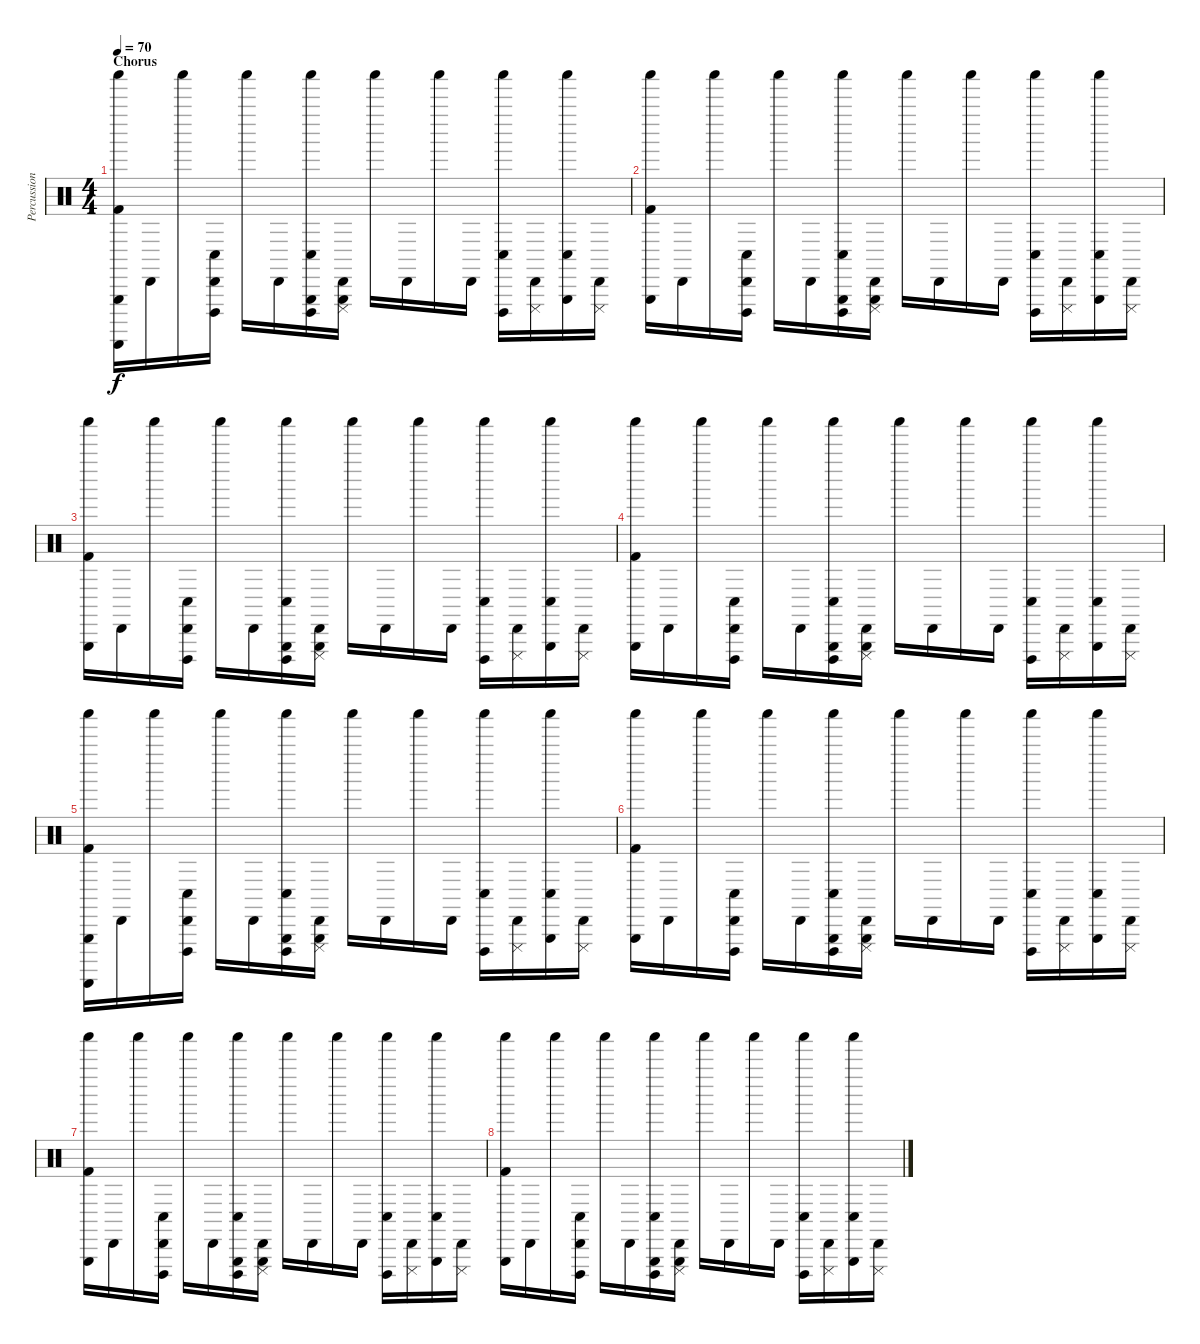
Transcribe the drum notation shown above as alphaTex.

\track ("Percussion" "Percussion") {instrument percussion}
\staff {score}
\articulation defaults
\ts (4 4)
\section ("" "Chorus")
\tempo 70
\clef neutral
\ks c
("Triangle (hit)" "Guiro (scrap-return)" "Shaker (hit)" "Kick (hit) 2").16{dy f} "Cabasa (hit)".16 "Shaker (hit)".16 ("Cabasa (hit)" "Cuica (open)" "Conga low (hit)").16 "Shaker (hit)".16 "Cabasa (hit)".16 ("Triangle (hit)" "Shaker (hit)" "Cuica (open)" "Conga low (hit)").16 ("Triangle (hit)" "Cabasa (hit)" "Cuica (mute)").16 "Shaker (hit)".16 "Cabasa (hit)".16 "Shaker (hit)".16 "Cabasa (hit)".16 ("Shaker (hit)" "Cuica (open)" "Conga low (hit)").16 ("Cabasa (hit)" "Cuica (mute)").16 ("Triangle (hit)" "Shaker (hit)" "Conga low (hit)").16 ("Cabasa (hit)" "Cuica (mute)").16 |
("Triangle (hit)" "Shaker (hit)" "Kick (hit) 2").16 "Cabasa (hit)".16 "Shaker (hit)".16 ("Cabasa (hit)" "Cuica (open)" "Conga low (hit)").16 "Shaker (hit)".16 "Cabasa (hit)".16 ("Triangle (hit)" "Shaker (hit)" "Cuica (open)" "Conga low (hit)").16 ("Triangle (hit)" "Cabasa (hit)" "Cuica (mute)").16 "Shaker (hit)".16 "Cabasa (hit)".16 "Shaker (hit)".16 "Cabasa (hit)".16 ("Shaker (hit)" "Cuica (open)" "Conga low (hit)").16 ("Cabasa (hit)" "Cuica (mute)").16 ("Triangle (hit)" "Shaker (hit)" "Conga low (hit)").16 ("Cabasa (hit)" "Cuica (mute)").16 |
("Triangle (hit)" "Shaker (hit)" "Kick (hit) 2").16 "Cabasa (hit)".16 "Shaker (hit)".16 ("Cabasa (hit)" "Cuica (open)" "Conga low (hit)").16 "Shaker (hit)".16 "Cabasa (hit)".16 ("Triangle (hit)" "Shaker (hit)" "Cuica (open)" "Conga low (hit)").16 ("Triangle (hit)" "Cabasa (hit)" "Cuica (mute)").16 "Shaker (hit)".16 "Cabasa (hit)".16 "Shaker (hit)".16 "Cabasa (hit)".16 ("Shaker (hit)" "Cuica (open)" "Conga low (hit)").16 ("Cabasa (hit)" "Cuica (mute)").16 ("Triangle (hit)" "Shaker (hit)" "Conga low (hit)").16 ("Cabasa (hit)" "Cuica (mute)").16 |
("Triangle (hit)" "Shaker (hit)" "Kick (hit) 2").16 "Cabasa (hit)".16 "Shaker (hit)".16 ("Cabasa (hit)" "Cuica (open)" "Conga low (hit)").16 "Shaker (hit)".16 "Cabasa (hit)".16 ("Triangle (hit)" "Shaker (hit)" "Cuica (open)" "Conga low (hit)").16 ("Triangle (hit)" "Cabasa (hit)" "Cuica (mute)").16 "Shaker (hit)".16 "Cabasa (hit)".16 "Shaker (hit)".16 "Cabasa (hit)".16 ("Shaker (hit)" "Cuica (open)" "Conga low (hit)").16 ("Cabasa (hit)" "Cuica (mute)").16 ("Triangle (hit)" "Shaker (hit)" "Conga low (hit)").16 ("Cabasa (hit)" "Cuica (mute)").16 |
("Triangle (hit)" "Guiro (scrap-return)" "Shaker (hit)" "Kick (hit) 2").16 "Cabasa (hit)".16 "Shaker (hit)".16 ("Cabasa (hit)" "Cuica (open)" "Conga low (hit)").16 "Shaker (hit)".16 "Cabasa (hit)".16 ("Triangle (hit)" "Shaker (hit)" "Cuica (open)" "Conga low (hit)").16 ("Triangle (hit)" "Cabasa (hit)" "Cuica (mute)").16 "Shaker (hit)".16 "Cabasa (hit)".16 "Shaker (hit)".16 "Cabasa (hit)".16 ("Shaker (hit)" "Cuica (open)" "Conga low (hit)").16 ("Cabasa (hit)" "Cuica (mute)").16 ("Triangle (hit)" "Shaker (hit)" "Conga low (hit)").16 ("Cabasa (hit)" "Cuica (mute)").16 |
("Triangle (hit)" "Shaker (hit)" "Kick (hit) 2").16 "Cabasa (hit)".16 "Shaker (hit)".16 ("Cabasa (hit)" "Cuica (open)" "Conga low (hit)").16 "Shaker (hit)".16 "Cabasa (hit)".16 ("Triangle (hit)" "Shaker (hit)" "Cuica (open)" "Conga low (hit)").16 ("Triangle (hit)" "Cabasa (hit)" "Cuica (mute)").16 "Shaker (hit)".16 "Cabasa (hit)".16 "Shaker (hit)".16 "Cabasa (hit)".16 ("Shaker (hit)" "Cuica (open)" "Conga low (hit)").16 ("Cabasa (hit)" "Cuica (mute)").16 ("Triangle (hit)" "Shaker (hit)" "Conga low (hit)").16 ("Cabasa (hit)" "Cuica (mute)").16 |
("Triangle (hit)" "Shaker (hit)" "Kick (hit) 2").16 "Cabasa (hit)".16 "Shaker (hit)".16 ("Cabasa (hit)" "Cuica (open)" "Conga low (hit)").16 "Shaker (hit)".16 "Cabasa (hit)".16 ("Triangle (hit)" "Shaker (hit)" "Cuica (open)" "Conga low (hit)").16 ("Triangle (hit)" "Cabasa (hit)" "Cuica (mute)").16 "Shaker (hit)".16 "Cabasa (hit)".16 "Shaker (hit)".16 "Cabasa (hit)".16 ("Shaker (hit)" "Cuica (open)" "Conga low (hit)").16 ("Cabasa (hit)" "Cuica (mute)").16 ("Triangle (hit)" "Shaker (hit)" "Conga low (hit)").16 ("Cabasa (hit)" "Cuica (mute)").16 |
("Triangle (hit)" "Shaker (hit)" "Kick (hit) 2").16 "Cabasa (hit)".16 "Shaker (hit)".16 ("Cabasa (hit)" "Cuica (open)" "Conga low (hit)").16 "Shaker (hit)".16 "Cabasa (hit)".16 ("Triangle (hit)" "Shaker (hit)" "Cuica (open)" "Conga low (hit)").16 ("Triangle (hit)" "Cabasa (hit)" "Cuica (mute)").16 "Shaker (hit)".16 "Cabasa (hit)".16 "Shaker (hit)".16 "Cabasa (hit)".16 ("Shaker (hit)" "Cuica (open)" "Conga low (hit)").16 ("Cabasa (hit)" "Cuica (mute)").16 ("Triangle (hit)" "Shaker (hit)" "Conga low (hit)").16 ("Cabasa (hit)" "Cuica (mute)").16
